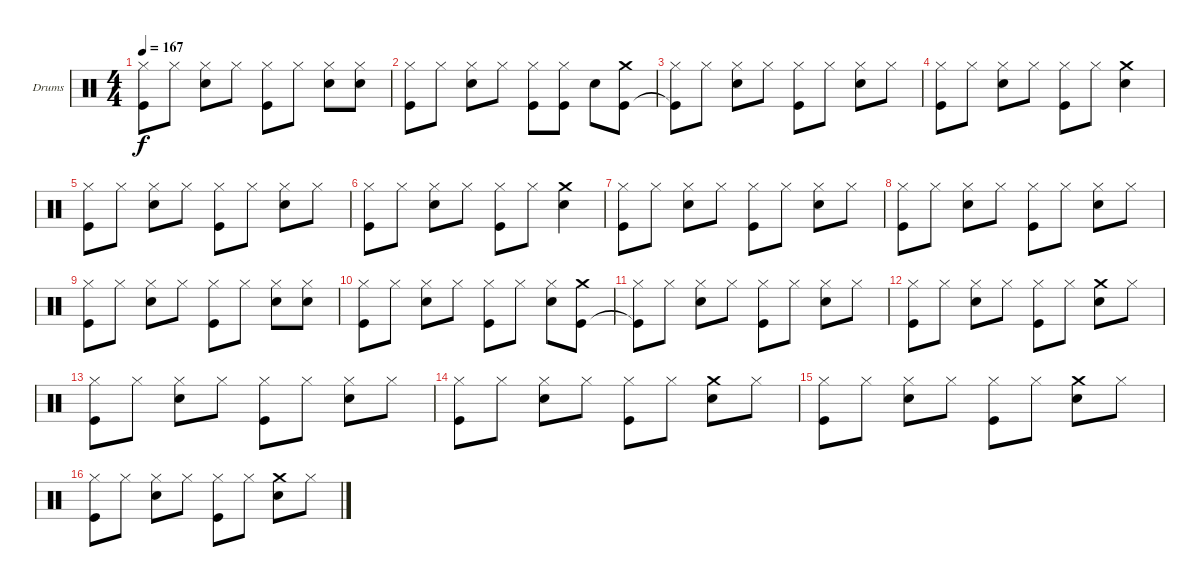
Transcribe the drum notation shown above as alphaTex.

\bracketExtendMode groupsimilarinstruments
\firstSystemTrackNameOrientation horizontal
\otherSystemsTrackNameOrientation horizontal
\track ("Drumkit" "Drums") {instrument percussion}
\staff {score}
\articulation defaults
\ts (4 4)
\tempo 167
\clef neutral
\ks c
("Hi-Hat (closed)" "Kick (hit)").8{dy f} "Hi-Hat (closed)".8 ("Hi-Hat (closed)" "Snare (hit) 2").8 "Hi-Hat (closed)".8 ("Hi-Hat (closed)" "Kick (hit)").8 "Hi-Hat (closed)".8 ("Hi-Hat (closed)" "Snare (hit) 2").8 ("Hi-Hat (closed)" "Snare (hit) 2").8 |
("Hi-Hat (closed)" "Kick (hit)").8 "Hi-Hat (closed)".8 ("Hi-Hat (closed)" "Snare (hit) 2").8 "Hi-Hat (closed)".8 ("Hi-Hat (closed)" "Kick (hit)").8 ("Hi-Hat (closed)" "Kick (hit)").8 "Snare (hit) 2".8 ("Crash medium (hit)" "Kick (hit)").8 |
("Hi-Hat (closed)" "Kick (hit)"{t}).8 "Hi-Hat (closed)".8 ("Hi-Hat (closed)" "Snare (hit) 2").8 "Hi-Hat (closed)".8 ("Hi-Hat (closed)" "Kick (hit)").8 "Hi-Hat (closed)".8 ("Hi-Hat (closed)" "Snare (hit) 2").8 "Hi-Hat (closed)".8 |
("Hi-Hat (closed)" "Kick (hit)").8 "Hi-Hat (closed)".8 ("Hi-Hat (closed)" "Snare (hit) 2").8 "Hi-Hat (closed)".8 ("Hi-Hat (closed)" "Kick (hit)").8 "Hi-Hat (closed)".8 ("Crash medium (hit)" "Snare (hit) 2").4 |
("Hi-Hat (closed)" "Kick (hit)").8 "Hi-Hat (closed)".8 ("Hi-Hat (closed)" "Snare (hit) 2").8 "Hi-Hat (closed)".8 ("Hi-Hat (closed)" "Kick (hit)").8 "Hi-Hat (closed)".8 ("Hi-Hat (closed)" "Snare (hit) 2").8 "Hi-Hat (closed)".8 |
("Hi-Hat (closed)" "Kick (hit)").8 "Hi-Hat (closed)".8 ("Hi-Hat (closed)" "Snare (hit) 2").8 "Hi-Hat (closed)".8 ("Hi-Hat (closed)" "Kick (hit)").8 "Hi-Hat (closed)".8 ("Crash medium (hit)" "Snare (hit) 2").4 |
("Hi-Hat (closed)" "Kick (hit)").8 "Hi-Hat (closed)".8 ("Hi-Hat (closed)" "Snare (hit) 2").8 "Hi-Hat (closed)".8 ("Hi-Hat (closed)" "Kick (hit)").8 "Hi-Hat (closed)".8 ("Hi-Hat (closed)" "Snare (hit) 2").8 "Hi-Hat (closed)".8 |
("Hi-Hat (closed)" "Kick (hit)").8 "Hi-Hat (closed)".8 ("Hi-Hat (closed)" "Snare (hit) 2").8 "Hi-Hat (closed)".8 ("Hi-Hat (closed)" "Kick (hit)").8 "Hi-Hat (closed)".8 ("Hi-Hat (closed)" "Snare (hit) 2").8 "Hi-Hat (closed)".8 |
("Hi-Hat (closed)" "Kick (hit)").8 "Hi-Hat (closed)".8 ("Hi-Hat (closed)" "Snare (hit) 2").8 "Hi-Hat (closed)".8 ("Hi-Hat (closed)" "Kick (hit)").8 "Hi-Hat (closed)".8 ("Hi-Hat (closed)" "Snare (hit) 2").8 ("Hi-Hat (closed)" "Snare (hit) 2").8 |
("Hi-Hat (closed)" "Kick (hit)").8 "Hi-Hat (closed)".8 ("Hi-Hat (closed)" "Snare (hit) 2").8 "Hi-Hat (closed)".8 ("Hi-Hat (closed)" "Kick (hit)").8 "Hi-Hat (closed)".8 ("Hi-Hat (closed)" "Snare (hit) 2").8 ("Crash medium (hit)" "Kick (hit)").8 |
("Hi-Hat (closed)" "Kick (hit)"{t}).8 "Hi-Hat (closed)".8 ("Hi-Hat (closed)" "Snare (hit) 2").8 "Hi-Hat (closed)".8 ("Hi-Hat (closed)" "Kick (hit)").8 "Hi-Hat (closed)".8 ("Hi-Hat (closed)" "Snare (hit) 2").8 "Hi-Hat (closed)".8 |
("Hi-Hat (closed)" "Kick (hit)").8 "Hi-Hat (closed)".8 ("Hi-Hat (closed)" "Snare (hit) 2").8 "Hi-Hat (closed)".8 ("Hi-Hat (closed)" "Kick (hit)").8 "Hi-Hat (closed)".8 ("Crash medium (hit)" "Snare (hit) 2").8 "Hi-Hat (closed)".8 |
("Hi-Hat (closed)" "Kick (hit)").8 "Hi-Hat (closed)".8 ("Hi-Hat (closed)" "Snare (hit) 2").8 "Hi-Hat (closed)".8 ("Hi-Hat (closed)" "Kick (hit)").8 "Hi-Hat (closed)".8 ("Hi-Hat (closed)" "Snare (hit) 2").8 "Hi-Hat (closed)".8 |
("Hi-Hat (closed)" "Kick (hit)").8 "Hi-Hat (closed)".8 ("Hi-Hat (closed)" "Snare (hit) 2").8 "Hi-Hat (closed)".8 ("Hi-Hat (closed)" "Kick (hit)").8 "Hi-Hat (closed)".8 ("Crash medium (hit)" "Snare (hit) 2").8 "Hi-Hat (closed)".8 |
("Hi-Hat (closed)" "Kick (hit)").8 "Hi-Hat (closed)".8 ("Hi-Hat (closed)" "Snare (hit) 2").8 "Hi-Hat (closed)".8 ("Hi-Hat (closed)" "Kick (hit)").8 "Hi-Hat (closed)".8 ("Crash medium (hit)" "Snare (hit) 2").8 "Hi-Hat (closed)".8 |
("Hi-Hat (closed)" "Kick (hit)").8 "Hi-Hat (closed)".8 ("Hi-Hat (closed)" "Snare (hit) 2").8 "Hi-Hat (closed)".8 ("Hi-Hat (closed)" "Kick (hit)").8 "Hi-Hat (closed)".8 ("Crash medium (hit)" "Snare (hit) 2").8 "Hi-Hat (closed)".8
